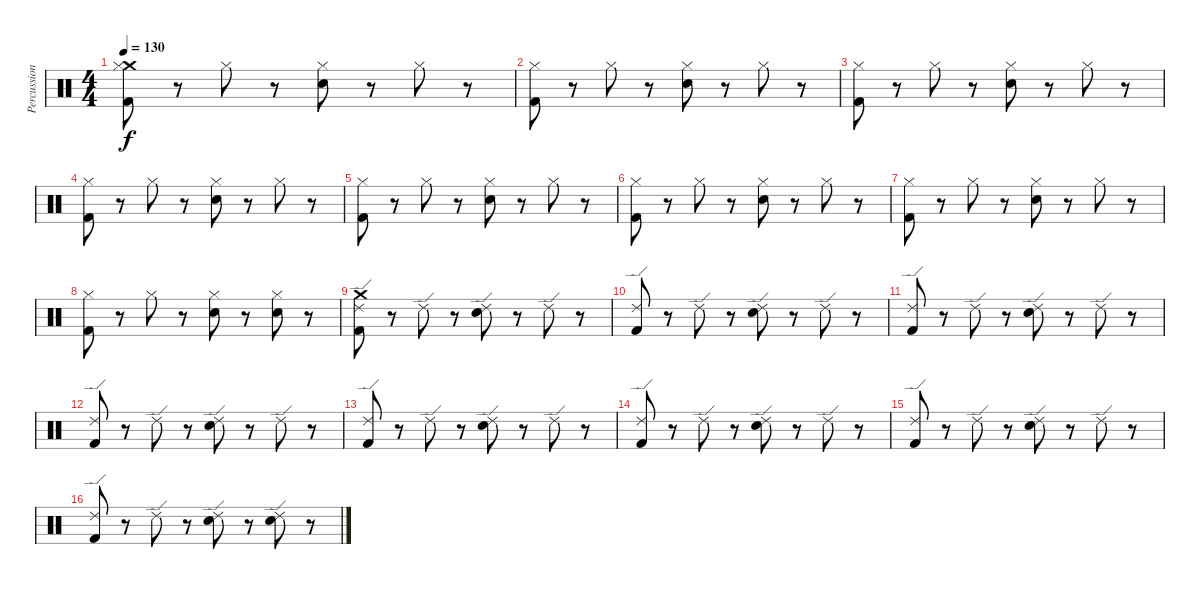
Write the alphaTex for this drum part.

\track ("Percussion" "Percussion") {instrument percussion}
\staff {score}
\articulation defaults
\ts (4 4)
\tempo 130
\clef neutral
\ks c
("Crash medium (hit)" "Hi-Hat (closed)" "Kick (hit) 2").8{dy f} r.8 "Hi-Hat (closed)".8 r.8 ("Hi-Hat (closed)" "Snare (hit) 2").8 r.8 "Hi-Hat (closed)".8 r.8 |
("Hi-Hat (closed)" "Kick (hit) 2").8 r.8 "Hi-Hat (closed)".8 r.8 ("Hi-Hat (closed)" "Snare (hit) 2").8 r.8 "Hi-Hat (closed)".8 r.8 |
("Hi-Hat (closed)" "Kick (hit) 2").8 r.8 "Hi-Hat (closed)".8 r.8 ("Hi-Hat (closed)" "Snare (hit) 2").8 r.8 "Hi-Hat (closed)".8 r.8 |
("Hi-Hat (closed)" "Kick (hit) 2").8 r.8 "Hi-Hat (closed)".8 r.8 ("Hi-Hat (closed)" "Snare (hit) 2").8 r.8 "Hi-Hat (closed)".8 r.8 |
("Hi-Hat (closed)" "Kick (hit) 2").8 r.8 "Hi-Hat (closed)".8 r.8 ("Hi-Hat (closed)" "Snare (hit) 2").8 r.8 "Hi-Hat (closed)".8 r.8 |
("Hi-Hat (closed)" "Kick (hit) 2").8 r.8 "Hi-Hat (closed)".8 r.8 ("Hi-Hat (closed)" "Snare (hit) 2").8 r.8 "Hi-Hat (closed)".8 r.8 |
("Hi-Hat (closed)" "Kick (hit) 2").8 r.8 "Hi-Hat (closed)".8 r.8 ("Hi-Hat (closed)" "Snare (hit) 2").8 r.8 "Hi-Hat (closed)".8 r.8 |
("Hi-Hat (closed)" "Kick (hit) 2").8 r.8 "Hi-Hat (closed)".8 r.8 ("Hi-Hat (closed)" "Snare (hit) 2").8 r.8 ("Hi-Hat (closed)" "Snare (hit) 2").8 r.8 |
("Crash medium (hit)" "Ride (edge) 2" "Kick (hit) 2").8 r.8 "Ride (edge) 2".8 r.8 ("Ride (edge) 2" "Snare (hit) 2").8 r.8 "Ride (edge) 2".8 r.8 |
("Ride (edge) 2" "Kick (hit) 2").8 r.8 "Ride (edge) 2".8 r.8 ("Ride (edge) 2" "Snare (hit) 2").8 r.8 "Ride (edge) 2".8 r.8 |
("Ride (edge) 2" "Kick (hit) 2").8 r.8 "Ride (edge) 2".8 r.8 ("Ride (edge) 2" "Snare (hit) 2").8 r.8 "Ride (edge) 2".8 r.8 |
("Ride (edge) 2" "Kick (hit) 2").8 r.8 "Ride (edge) 2".8 r.8 ("Ride (edge) 2" "Snare (hit) 2").8 r.8 "Ride (edge) 2".8 r.8 |
("Ride (edge) 2" "Kick (hit) 2").8 r.8 "Ride (edge) 2".8 r.8 ("Ride (edge) 2" "Snare (hit) 2").8 r.8 "Ride (edge) 2".8 r.8 |
("Ride (edge) 2" "Kick (hit) 2").8 r.8 "Ride (edge) 2".8 r.8 ("Ride (edge) 2" "Snare (hit) 2").8 r.8 "Ride (edge) 2".8 r.8 |
("Ride (edge) 2" "Kick (hit) 2").8 r.8 "Ride (edge) 2".8 r.8 ("Ride (edge) 2" "Snare (hit) 2").8 r.8 "Ride (edge) 2".8 r.8 |
("Ride (edge) 2" "Kick (hit) 2").8 r.8 "Ride (edge) 2".8 r.8 ("Ride (edge) 2" "Snare (hit) 2").8 r.8 ("Ride (edge) 2" "Snare (hit) 2").8 r.8
